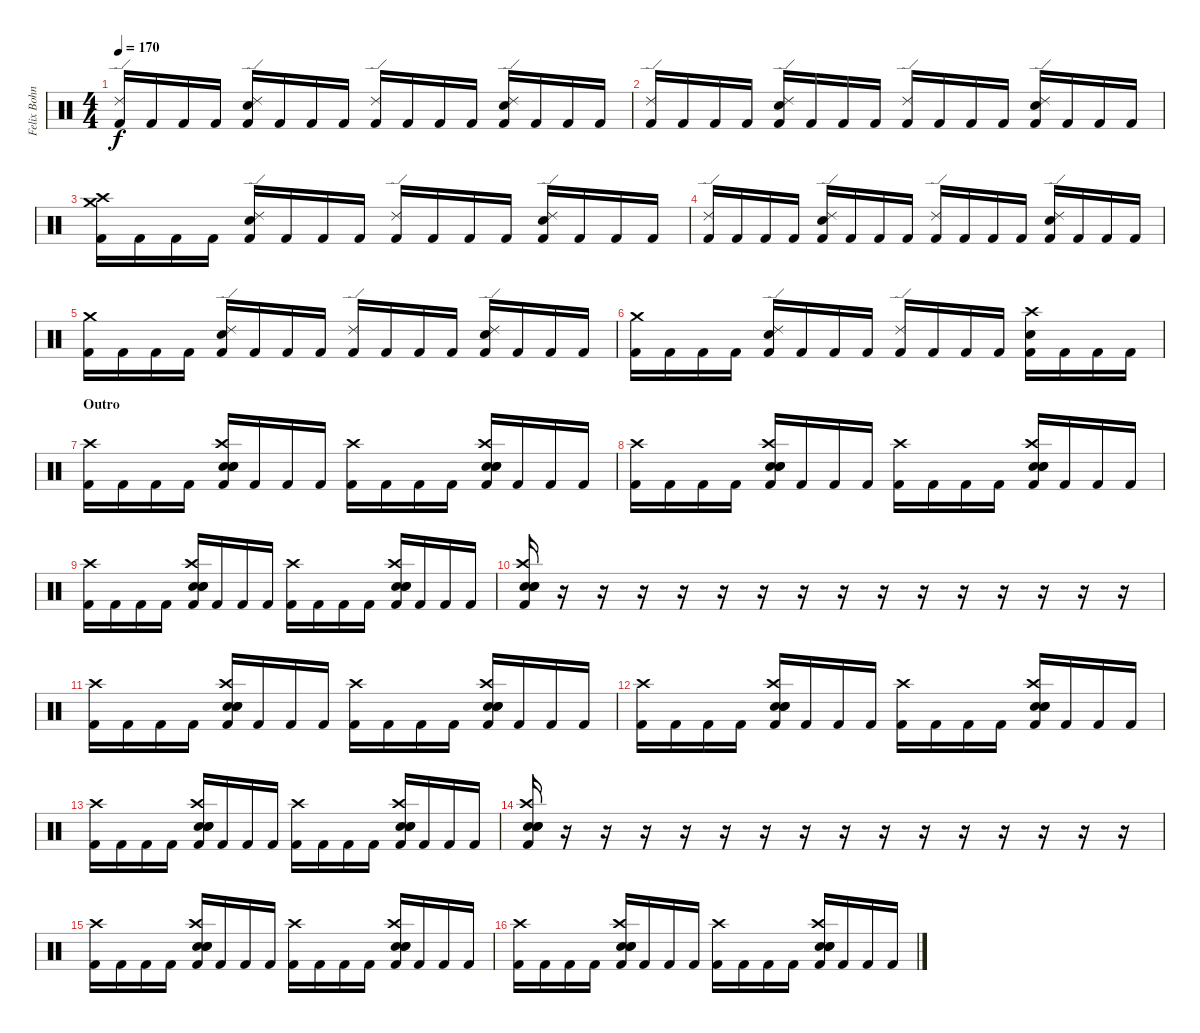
\track ("Felix Bohnke" "Felix Bohn") {instrument percussion}
\staff {score}
\articulation defaults
\ts (4 4)
\tempo 170
\clef neutral
\ks c
("Ride (edge) 2" "Kick (hit) 2").16{dy f} "Kick (hit) 2".16 "Kick (hit) 2".16 "Kick (hit) 2".16 ("Ride (edge) 2" "Snare (hit) 2" "Kick (hit) 2").16 "Kick (hit) 2".16 "Kick (hit) 2".16 "Kick (hit) 2".16 ("Ride (edge) 2" "Kick (hit) 2").16 "Kick (hit) 2".16 "Kick (hit) 2".16 "Kick (hit) 2".16 ("Ride (edge) 2" "Snare (hit) 2" "Kick (hit) 2").16 "Kick (hit) 2".16 "Kick (hit) 2".16 "Kick (hit) 2".16 |
("Ride (edge) 2" "Kick (hit) 2").16 "Kick (hit) 2".16 "Kick (hit) 2".16 "Kick (hit) 2".16 ("Ride (edge) 2" "Snare (hit) 2" "Kick (hit) 2").16 "Kick (hit) 2".16 "Kick (hit) 2".16 "Kick (hit) 2".16 ("Ride (edge) 2" "Kick (hit) 2").16 "Kick (hit) 2".16 "Kick (hit) 2".16 "Kick (hit) 2".16 ("Ride (edge) 2" "Snare (hit) 2" "Kick (hit) 2").16 "Kick (hit) 2".16 "Kick (hit) 2".16 "Kick (hit) 2".16 |
("Crash high (hit)" "Crash medium (hit)" "Kick (hit) 2").16 "Kick (hit) 2".16 "Kick (hit) 2".16 "Kick (hit) 2".16 ("Ride (edge) 2" "Snare (hit) 2" "Kick (hit) 2").16 "Kick (hit) 2".16 "Kick (hit) 2".16 "Kick (hit) 2".16 ("Ride (edge) 2" "Kick (hit) 2").16 "Kick (hit) 2".16 "Kick (hit) 2".16 "Kick (hit) 2".16 ("Ride (edge) 2" "Snare (hit) 2" "Kick (hit) 2").16 "Kick (hit) 2".16 "Kick (hit) 2".16 "Kick (hit) 2".16 |
("Ride (edge) 2" "Kick (hit) 2").16 "Kick (hit) 2".16 "Kick (hit) 2".16 "Kick (hit) 2".16 ("Ride (edge) 2" "Snare (hit) 2" "Kick (hit) 2").16 "Kick (hit) 2".16 "Kick (hit) 2".16 "Kick (hit) 2".16 ("Ride (edge) 2" "Kick (hit) 2").16 "Kick (hit) 2".16 "Kick (hit) 2".16 "Kick (hit) 2".16 ("Ride (edge) 2" "Snare (hit) 2" "Kick (hit) 2").16 "Kick (hit) 2".16 "Kick (hit) 2".16 "Kick (hit) 2".16 |
("Crash medium (hit)" "Kick (hit) 2").16 "Kick (hit) 2".16 "Kick (hit) 2".16 "Kick (hit) 2".16 ("Ride (edge) 2" "Snare (hit) 2" "Kick (hit) 2").16 "Kick (hit) 2".16 "Kick (hit) 2".16 "Kick (hit) 2".16 ("Ride (edge) 2" "Kick (hit) 2").16 "Kick (hit) 2".16 "Kick (hit) 2".16 "Kick (hit) 2".16 ("Ride (edge) 2" "Snare (hit) 2" "Kick (hit) 2").16 "Kick (hit) 2".16 "Kick (hit) 2".16 "Kick (hit) 2".16 |
("Crash medium (hit)" "Kick (hit) 2").16 "Kick (hit) 2".16 "Kick (hit) 2".16 "Kick (hit) 2".16 ("Ride (edge) 2" "Snare (hit) 2" "Kick (hit) 2").16 "Kick (hit) 2".16 "Kick (hit) 2".16 "Kick (hit) 2".16 ("Ride (edge) 2" "Kick (hit) 2").16 "Kick (hit) 2".16 "Kick (hit) 2".16 "Kick (hit) 2".16 ("Crash high (hit)" "Snare (hit) 2" "Kick (hit) 2").16 "Kick (hit) 2".16 "Kick (hit) 2".16 "Kick (hit) 2".16 |
\section ("" "Outro")
("Crash high (hit)" "Kick (hit) 2").16 "Kick (hit) 2".16 "Kick (hit) 2".16 "Kick (hit) 2".16 ("Crash high (hit)" "Electric Snare (hit)" "Electric Snare (hit)" "Electric Snare (hit)" "Kick (hit) 2").16 "Kick (hit) 2".16 "Kick (hit) 2".16 "Kick (hit) 2".16 ("Crash high (hit)" "Kick (hit) 2").16 "Kick (hit) 2".16 "Kick (hit) 2".16 "Kick (hit) 2".16 ("Crash high (hit)" "Electric Snare (hit)" "Electric Snare (hit)" "Electric Snare (hit)" "Kick (hit) 2").16 "Kick (hit) 2".16 "Kick (hit) 2".16 "Kick (hit) 2".16 |
("Crash high (hit)" "Kick (hit) 2").16 "Kick (hit) 2".16 "Kick (hit) 2".16 "Kick (hit) 2".16 ("Crash high (hit)" "Electric Snare (hit)" "Electric Snare (hit)" "Electric Snare (hit)" "Kick (hit) 2").16 "Kick (hit) 2".16 "Kick (hit) 2".16 "Kick (hit) 2".16 ("Crash high (hit)" "Kick (hit) 2").16 "Kick (hit) 2".16 "Kick (hit) 2".16 "Kick (hit) 2".16 ("Crash high (hit)" "Electric Snare (hit)" "Electric Snare (hit)" "Electric Snare (hit)" "Kick (hit) 2").16 "Kick (hit) 2".16 "Kick (hit) 2".16 "Kick (hit) 2".16 |
("Crash high (hit)" "Kick (hit) 2").16 "Kick (hit) 2".16 "Kick (hit) 2".16 "Kick (hit) 2".16 ("Crash high (hit)" "Electric Snare (hit)" "Electric Snare (hit)" "Electric Snare (hit)" "Kick (hit) 2").16 "Kick (hit) 2".16 "Kick (hit) 2".16 "Kick (hit) 2".16 ("Crash high (hit)" "Kick (hit) 2").16 "Kick (hit) 2".16 "Kick (hit) 2".16 "Kick (hit) 2".16 ("Crash high (hit)" "Electric Snare (hit)" "Electric Snare (hit)" "Electric Snare (hit)" "Kick (hit) 2").16 "Kick (hit) 2".16 "Kick (hit) 2".16 "Kick (hit) 2".16 |
("Crash high (hit)" "Electric Snare (hit)" "Electric Snare (hit)" "Electric Snare (hit)" "Kick (hit) 2").16 r.16 r.16 r.16 r.16 r.16 r.16 r.16 r.16 r.16 r.16 r.16 r.16 r.16 r.16 r.16 |
("Crash high (hit)" "Kick (hit) 2").16 "Kick (hit) 2".16 "Kick (hit) 2".16 "Kick (hit) 2".16 ("Crash high (hit)" "Electric Snare (hit)" "Electric Snare (hit)" "Electric Snare (hit)" "Kick (hit) 2").16 "Kick (hit) 2".16 "Kick (hit) 2".16 "Kick (hit) 2".16 ("Crash high (hit)" "Kick (hit) 2").16 "Kick (hit) 2".16 "Kick (hit) 2".16 "Kick (hit) 2".16 ("Crash high (hit)" "Electric Snare (hit)" "Electric Snare (hit)" "Electric Snare (hit)" "Kick (hit) 2").16 "Kick (hit) 2".16 "Kick (hit) 2".16 "Kick (hit) 2".16 |
("Crash high (hit)" "Kick (hit) 2").16 "Kick (hit) 2".16 "Kick (hit) 2".16 "Kick (hit) 2".16 ("Crash high (hit)" "Electric Snare (hit)" "Electric Snare (hit)" "Electric Snare (hit)" "Kick (hit) 2").16 "Kick (hit) 2".16 "Kick (hit) 2".16 "Kick (hit) 2".16 ("Crash high (hit)" "Kick (hit) 2").16 "Kick (hit) 2".16 "Kick (hit) 2".16 "Kick (hit) 2".16 ("Crash high (hit)" "Electric Snare (hit)" "Electric Snare (hit)" "Electric Snare (hit)" "Kick (hit) 2").16 "Kick (hit) 2".16 "Kick (hit) 2".16 "Kick (hit) 2".16 |
("Crash high (hit)" "Kick (hit) 2").16 "Kick (hit) 2".16 "Kick (hit) 2".16 "Kick (hit) 2".16 ("Crash high (hit)" "Electric Snare (hit)" "Electric Snare (hit)" "Electric Snare (hit)" "Kick (hit) 2").16 "Kick (hit) 2".16 "Kick (hit) 2".16 "Kick (hit) 2".16 ("Crash high (hit)" "Kick (hit) 2").16 "Kick (hit) 2".16 "Kick (hit) 2".16 "Kick (hit) 2".16 ("Crash high (hit)" "Electric Snare (hit)" "Electric Snare (hit)" "Electric Snare (hit)" "Kick (hit) 2").16 "Kick (hit) 2".16 "Kick (hit) 2".16 "Kick (hit) 2".16 |
("Crash high (hit)" "Electric Snare (hit)" "Electric Snare (hit)" "Electric Snare (hit)" "Kick (hit) 2").16 r.16 r.16 r.16 r.16 r.16 r.16 r.16 r.16 r.16 r.16 r.16 r.16 r.16 r.16 r.16 |
("Crash high (hit)" "Kick (hit) 2").16 "Kick (hit) 2".16 "Kick (hit) 2".16 "Kick (hit) 2".16 ("Crash high (hit)" "Electric Snare (hit)" "Electric Snare (hit)" "Electric Snare (hit)" "Kick (hit) 2").16 "Kick (hit) 2".16 "Kick (hit) 2".16 "Kick (hit) 2".16 ("Crash high (hit)" "Kick (hit) 2").16 "Kick (hit) 2".16 "Kick (hit) 2".16 "Kick (hit) 2".16 ("Crash high (hit)" "Electric Snare (hit)" "Electric Snare (hit)" "Electric Snare (hit)" "Kick (hit) 2").16 "Kick (hit) 2".16 "Kick (hit) 2".16 "Kick (hit) 2".16 |
("Crash high (hit)" "Kick (hit) 2").16 "Kick (hit) 2".16 "Kick (hit) 2".16 "Kick (hit) 2".16 ("Crash high (hit)" "Electric Snare (hit)" "Electric Snare (hit)" "Electric Snare (hit)" "Kick (hit) 2").16 "Kick (hit) 2".16 "Kick (hit) 2".16 "Kick (hit) 2".16 ("Crash high (hit)" "Kick (hit) 2").16 "Kick (hit) 2".16 "Kick (hit) 2".16 "Kick (hit) 2".16 ("Crash high (hit)" "Electric Snare (hit)" "Electric Snare (hit)" "Electric Snare (hit)" "Kick (hit) 2").16 "Kick (hit) 2".16 "Kick (hit) 2".16 "Kick (hit) 2".16
